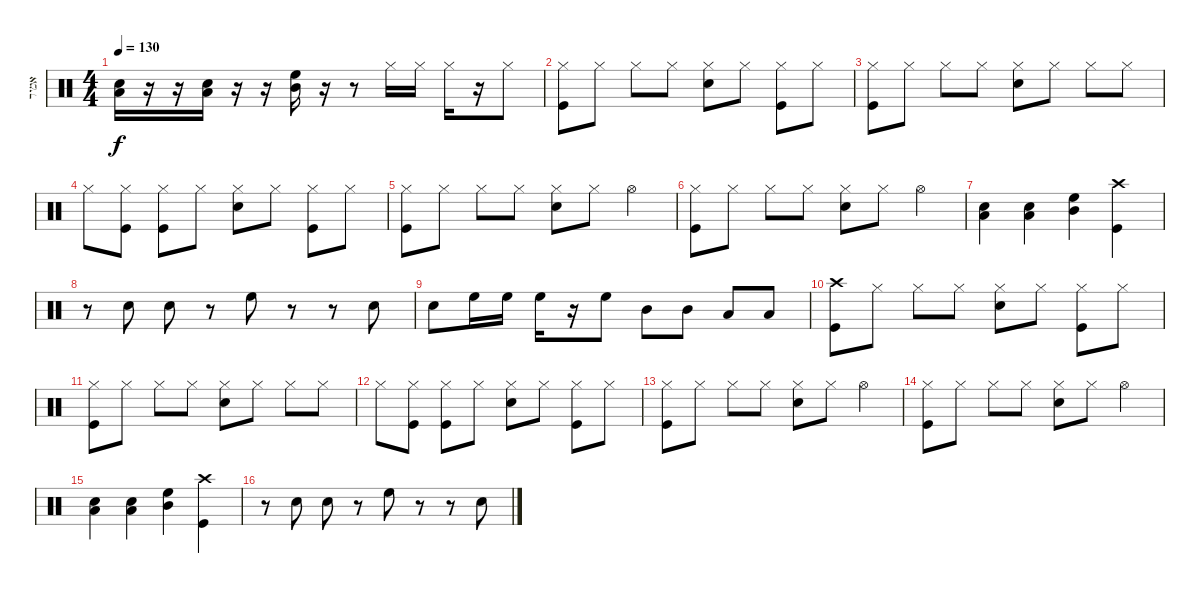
\track ("אמיר" "אמיר") {instrument percussion}
\staff {score}
\articulation defaults
\ts (4 4)
\tempo 130
\clef neutral
\ks c
("Snare (hit) 2" "Low Floor Tom (hit)").16{dy f} r.16 r.16 ("Snare (hit) 2" "Low Floor Tom (hit)").16 r.16 r.16 ("High Floor Tom (hit)" "Mid Tom (hit)").16 r.16 r.8 "Hi-Hat (closed)".16 "Hi-Hat (closed)".16 "Hi-Hat (closed)".16 r.16 "Hi-Hat (closed)".8 |
("Hi-Hat (closed)" "Kick (hit)").8 "Hi-Hat (closed)".8 "Hi-Hat (closed)".8 "Hi-Hat (closed)".8 ("Hi-Hat (closed)" "Snare (hit) 2").8 "Hi-Hat (closed)".8 ("Hi-Hat (closed)" "Kick (hit)").8 "Hi-Hat (closed)".8 |
("Hi-Hat (closed)" "Kick (hit)").8 "Hi-Hat (closed)".8 "Hi-Hat (closed)".8 "Hi-Hat (closed)".8 ("Hi-Hat (closed)" "Snare (hit) 2").8 "Hi-Hat (closed)".8 "Hi-Hat (closed)".8 "Hi-Hat (closed)".8 |
"Hi-Hat (closed)".8 ("Hi-Hat (closed)" "Kick (hit)").8 ("Hi-Hat (closed)" "Kick (hit)").8 "Hi-Hat (closed)".8 ("Hi-Hat (closed)" "Snare (hit) 2").8 "Hi-Hat (closed)".8 ("Hi-Hat (closed)" "Kick (hit)").8 "Hi-Hat (closed)".8 |
("Hi-Hat (closed)" "Kick (hit)").8 "Hi-Hat (closed)".8 "Hi-Hat (closed)".8 "Hi-Hat (closed)".8 ("Hi-Hat (closed)" "Snare (hit) 2").8 "Hi-Hat (closed)".8 "Hi-Hat (open)".4 |
("Hi-Hat (closed)" "Kick (hit)").8 "Hi-Hat (closed)".8 "Hi-Hat (closed)".8 "Hi-Hat (closed)".8 ("Hi-Hat (closed)" "Snare (hit) 2").8 "Hi-Hat (closed)".8 "Hi-Hat (open)".4 |
("Snare (hit) 2" "Low Floor Tom (hit)").4 ("Snare (hit) 2" "Low Floor Tom (hit)").4 ("High Floor Tom (hit)" "Mid Tom (hit)").4 ("Crash high (hit)" "Kick (hit)").4 |
r.8 "Snare (hit) 2".8 "Snare (hit) 2".8 r.8 "High Floor Tom (hit)".8 r.8 r.8 "Snare (hit) 2".8 |
"Snare (hit) 2".8 "High Floor Tom (hit)".16 "High Floor Tom (hit)".16 "High Floor Tom (hit)".16 r.16 "High Floor Tom (hit)".8 "Mid Tom (hit)".8 "Mid Tom (hit)".8 "Low Floor Tom (hit)".8 "Low Floor Tom (hit)".8 |
("Crash high (hit)" "Kick (hit)").8 "Hi-Hat (closed)".8 "Hi-Hat (closed)".8 "Hi-Hat (closed)".8 ("Hi-Hat (closed)" "Snare (hit) 2").8 "Hi-Hat (closed)".8 ("Hi-Hat (closed)" "Kick (hit)").8 "Hi-Hat (closed)".8 |
("Hi-Hat (closed)" "Kick (hit)").8 "Hi-Hat (closed)".8 "Hi-Hat (closed)".8 "Hi-Hat (closed)".8 ("Hi-Hat (closed)" "Snare (hit) 2").8 "Hi-Hat (closed)".8 "Hi-Hat (closed)".8 "Hi-Hat (closed)".8 |
"Hi-Hat (closed)".8 ("Hi-Hat (closed)" "Kick (hit)").8 ("Hi-Hat (closed)" "Kick (hit)").8 "Hi-Hat (closed)".8 ("Hi-Hat (closed)" "Snare (hit) 2").8 "Hi-Hat (closed)".8 ("Hi-Hat (closed)" "Kick (hit)").8 "Hi-Hat (closed)".8 |
("Hi-Hat (closed)" "Kick (hit)").8 "Hi-Hat (closed)".8 "Hi-Hat (closed)".8 "Hi-Hat (closed)".8 ("Hi-Hat (closed)" "Snare (hit) 2").8 "Hi-Hat (closed)".8 "Hi-Hat (open)".4 |
("Hi-Hat (closed)" "Kick (hit)").8 "Hi-Hat (closed)".8 "Hi-Hat (closed)".8 "Hi-Hat (closed)".8 ("Hi-Hat (closed)" "Snare (hit) 2").8 "Hi-Hat (closed)".8 "Hi-Hat (open)".4 |
("Snare (hit) 2" "Low Floor Tom (hit)").4 ("Snare (hit) 2" "Low Floor Tom (hit)").4 ("High Floor Tom (hit)" "Mid Tom (hit)").4 ("Crash high (hit)" "Kick (hit)").4 |
r.8 "Snare (hit) 2".8 "Snare (hit) 2".8 r.8 "High Floor Tom (hit)".8 r.8 r.8 "Snare (hit) 2".8
